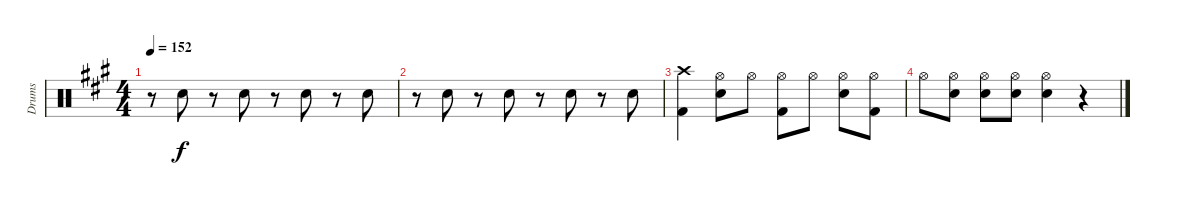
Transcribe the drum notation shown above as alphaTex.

\track ("Drums" "Drums") {instrument percussion}
\staff {score}
\articulation defaults
\ts (4 4)
\tempo 152
\clef neutral
\ks f#minor
r.8{dy f} "Snare (hit) 2".8 r.8 "Snare (hit) 2".8 r.8 "Snare (hit) 2".8 r.8 "Snare (hit) 2".8 |
r.8 "Snare (hit) 2".8 r.8 "Snare (hit) 2".8 r.8 "Snare (hit) 2".8 r.8 "Snare (hit) 2".8 |
("Kick (hit) 2" "Crash high (hit)").4 ("Snare (hit) 2" "Hi-Hat (open)").8 "Hi-Hat (open)".8 ("Kick (hit) 2" "Hi-Hat (open)").8 "Hi-Hat (open)".8 ("Snare (hit) 2" "Hi-Hat (open)").8 ("Kick (hit) 2" "Hi-Hat (open)").8 |
"Hi-Hat (open)".8 ("Snare (hit) 2" "Hi-Hat (open)").8 ("Snare (hit) 2" "Hi-Hat (open)").8 ("Snare (hit) 2" "Hi-Hat (open)").8 ("Snare (hit) 2" "Hi-Hat (open)").4 r.4
